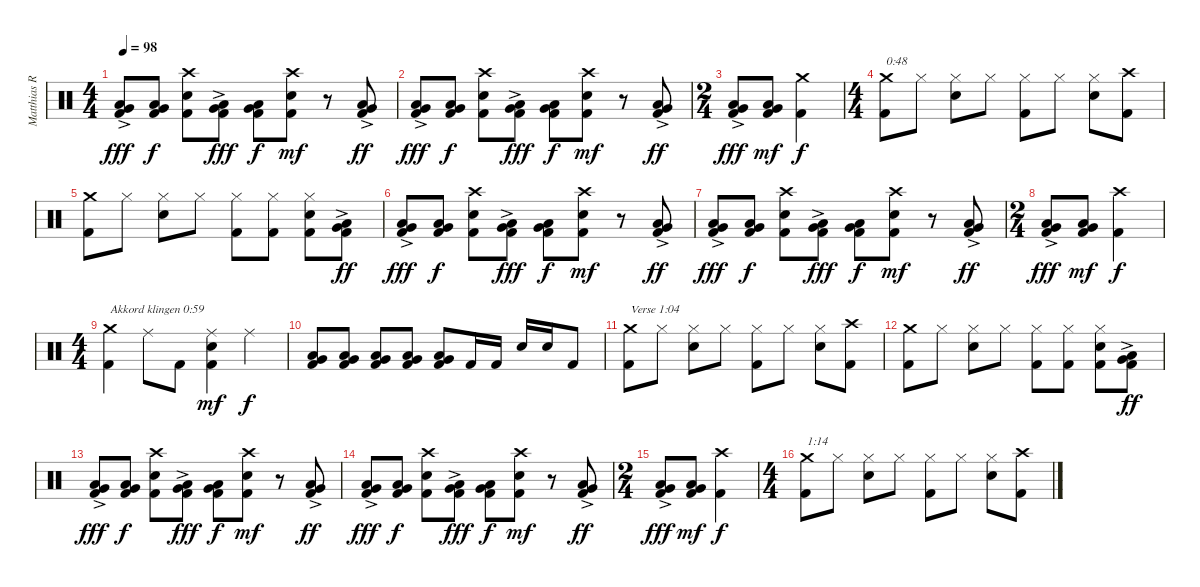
\track ("Matthias R." "Matthias R") {instrument percussion}
\staff {score}
\articulation defaults
\ts (4 4)
\tempo 98
\clef neutral
\ks c
("Kick (hit) 2" "Very Low Tom (hit)"{ac} "Low Tom (hit)"{ac}).8{dy fff} ("Kick (hit) 2" "Very Low Tom (hit)" "Low Tom (hit)").8{dy f} ("Kick (hit) 2" "Electric Snare (hit)" "Crash high (hit)").8 ("Kick (hit) 2" "Very Low Tom (hit)"{ac} "Low Tom (hit)"{ac}).8{dy fff} ("Kick (hit) 2" "Very Low Tom (hit)" "Low Tom (hit)").8{dy f} ("Kick (hit) 2" "Electric Snare (hit)" "Crash high (hit)").8{dy mf} r.8 ("Kick (hit) 2" "Very Low Tom (hit)"{ac} "Low Tom (hit)"{ac}).8{dy ff} |
("Kick (hit) 2" "Very Low Tom (hit)"{ac} "Low Tom (hit)"{ac}).8{dy fff} ("Kick (hit) 2" "Very Low Tom (hit)" "Low Tom (hit)").8{dy f} ("Kick (hit) 2" "Electric Snare (hit)" "Crash high (hit)").8 ("Kick (hit) 2" "Very Low Tom (hit)"{ac} "Low Tom (hit)"{ac}).8{dy fff} ("Kick (hit) 2" "Very Low Tom (hit)" "Low Tom (hit)").8{dy f} ("Kick (hit) 2" "Electric Snare (hit)" "Crash high (hit)").8{dy mf} r.8 ("Kick (hit) 2" "Very Low Tom (hit)"{ac} "Low Tom (hit)"{ac}).8{dy ff} |
\ts (2 4)
("Kick (hit) 2" "Very Low Tom (hit)"{ac} "Low Tom (hit)"{ac}).8{dy fff} ("Kick (hit) 2" "Very Low Tom (hit)" "Low Tom (hit)").8{dy mf} ("Kick (hit) 2" "Crash medium (hit)").4{dy f} |
\ts (4 4)
("Kick (hit) 2" "Crash medium (hit)").8{txt "0:48"} "Hi-Hat (closed)".8 ("Electric Snare (hit)" "Hi-Hat (closed)").8 "Hi-Hat (closed)".8 ("Kick (hit) 2" "Hi-Hat (closed)").8 "Hi-Hat (closed)".8 ("Electric Snare (hit)" "Hi-Hat (closed)").8 ("Kick (hit) 2" "Crash high (hit)").8 |
("Kick (hit) 2" "Crash medium (hit)").8 "Hi-Hat (closed)".8 ("Electric Snare (hit)" "Hi-Hat (closed)").8 "Hi-Hat (closed)".8 ("Kick (hit) 2" "Hi-Hat (closed)").8 ("Kick (hit) 2" "Hi-Hat (closed)").8 ("Kick (hit) 2" "Electric Snare (hit)" "Hi-Hat (closed)").8 ("Kick (hit) 2" "Very Low Tom (hit)"{ac} "Low Tom (hit)"{ac}).8{dy ff} |
("Kick (hit) 2" "Very Low Tom (hit)"{ac} "Low Tom (hit)"{ac}).8{dy fff} ("Kick (hit) 2" "Very Low Tom (hit)" "Low Tom (hit)").8{dy f} ("Kick (hit) 2" "Electric Snare (hit)" "Crash high (hit)").8 ("Kick (hit) 2" "Very Low Tom (hit)"{ac} "Low Tom (hit)"{ac}).8{dy fff} ("Kick (hit) 2" "Very Low Tom (hit)" "Low Tom (hit)").8{dy f} ("Kick (hit) 2" "Electric Snare (hit)" "Crash high (hit)").8{dy mf} r.8 ("Kick (hit) 2" "Very Low Tom (hit)"{ac} "Low Tom (hit)"{ac}).8{dy ff} |
("Kick (hit) 2" "Very Low Tom (hit)"{ac} "Low Tom (hit)"{ac}).8{dy fff} ("Kick (hit) 2" "Very Low Tom (hit)" "Low Tom (hit)").8{dy f} ("Kick (hit) 2" "Electric Snare (hit)" "Crash high (hit)").8 ("Kick (hit) 2" "Very Low Tom (hit)"{ac} "Low Tom (hit)"{ac}).8{dy fff} ("Kick (hit) 2" "Very Low Tom (hit)" "Low Tom (hit)").8{dy f} ("Kick (hit) 2" "Electric Snare (hit)" "Crash high (hit)").8{dy mf} r.8 ("Kick (hit) 2" "Very Low Tom (hit)"{ac} "Low Tom (hit)"{ac}).8{dy ff} |
\ts (2 4)
("Kick (hit) 2" "Very Low Tom (hit)"{ac} "Low Tom (hit)"{ac}).8{dy fff} ("Kick (hit) 2" "Very Low Tom (hit)" "Low Tom (hit)").8{dy mf} ("Kick (hit) 2" "Crash high (hit)").4{dy f} |
\ts (4 4)
("Kick (hit) 2" "Crash medium (hit)").4{txt "Akkord klingen 0:59"} "Ride (middle)".8 "Kick (hit) 2".8 ("Kick (hit) 2" "Electric Snare (hit)" "Ride (middle)").4{dy mf} "Ride (middle)".4{dy f} |
("Kick (hit) 2" "Very Low Tom (hit)" "Low Tom (hit)").8 ("Kick (hit) 2" "Very Low Tom (hit)" "Low Tom (hit)").8 ("Kick (hit) 2" "Very Low Tom (hit)" "Low Tom (hit)").8 ("Kick (hit) 2" "Very Low Tom (hit)" "Low Tom (hit)").8 ("Kick (hit) 2" "Very Low Tom (hit)" "Low Tom (hit)").8 "Kick (hit) 2".16 "Kick (hit) 2".16 "Electric Snare (hit)".16 "Electric Snare (hit)".16 "Kick (hit) 2".8 |
("Kick (hit) 2" "Crash medium (hit)").8{txt "Verse 1:04"} "Hi-Hat (closed)".8 ("Electric Snare (hit)" "Hi-Hat (closed)").8 "Hi-Hat (closed)".8 ("Kick (hit) 2" "Hi-Hat (closed)").8 "Hi-Hat (closed)".8 ("Electric Snare (hit)" "Hi-Hat (closed)").8 ("Kick (hit) 2" "Crash high (hit)").8 |
("Kick (hit) 2" "Crash medium (hit)").8 "Hi-Hat (closed)".8 ("Electric Snare (hit)" "Hi-Hat (closed)").8 "Hi-Hat (closed)".8 ("Kick (hit) 2" "Hi-Hat (closed)").8 ("Kick (hit) 2" "Hi-Hat (closed)").8 ("Kick (hit) 2" "Electric Snare (hit)" "Hi-Hat (closed)").8 ("Kick (hit) 2" "Very Low Tom (hit)"{ac} "Low Tom (hit)"{ac}).8{dy ff} |
("Kick (hit) 2" "Very Low Tom (hit)"{ac} "Low Tom (hit)"{ac}).8{dy fff} ("Kick (hit) 2" "Very Low Tom (hit)" "Low Tom (hit)").8{dy f} ("Kick (hit) 2" "Electric Snare (hit)" "Crash high (hit)").8 ("Kick (hit) 2" "Very Low Tom (hit)"{ac} "Low Tom (hit)"{ac}).8{dy fff} ("Kick (hit) 2" "Very Low Tom (hit)" "Low Tom (hit)").8{dy f} ("Kick (hit) 2" "Electric Snare (hit)" "Crash high (hit)").8{dy mf} r.8 ("Kick (hit) 2" "Very Low Tom (hit)"{ac} "Low Tom (hit)"{ac}).8{dy ff} |
("Kick (hit) 2" "Very Low Tom (hit)"{ac} "Low Tom (hit)"{ac}).8{dy fff} ("Kick (hit) 2" "Very Low Tom (hit)" "Low Tom (hit)").8{dy f} ("Kick (hit) 2" "Electric Snare (hit)" "Crash high (hit)").8 ("Kick (hit) 2" "Very Low Tom (hit)"{ac} "Low Tom (hit)"{ac}).8{dy fff} ("Kick (hit) 2" "Very Low Tom (hit)" "Low Tom (hit)").8{dy f} ("Kick (hit) 2" "Electric Snare (hit)" "Crash high (hit)").8{dy mf} r.8 ("Kick (hit) 2" "Very Low Tom (hit)"{ac} "Low Tom (hit)"{ac}).8{dy ff} |
\ts (2 4)
("Kick (hit) 2" "Very Low Tom (hit)"{ac} "Low Tom (hit)"{ac}).8{dy fff} ("Kick (hit) 2" "Very Low Tom (hit)" "Low Tom (hit)").8{dy mf} ("Kick (hit) 2" "Crash high (hit)").4{dy f} |
\ts (4 4)
("Kick (hit) 2" "Crash medium (hit)").8{txt "1:14"} "Hi-Hat (closed)".8 ("Electric Snare (hit)" "Hi-Hat (closed)").8 "Hi-Hat (closed)".8 ("Kick (hit) 2" "Hi-Hat (closed)").8 "Hi-Hat (closed)".8 ("Electric Snare (hit)" "Hi-Hat (closed)").8 ("Kick (hit) 2" "Crash high (hit)").8
